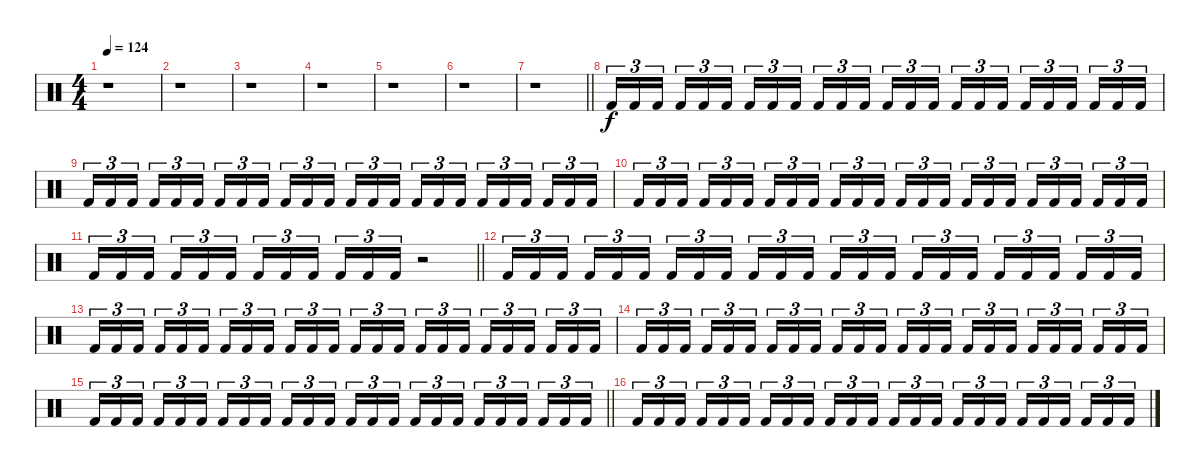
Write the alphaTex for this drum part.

\track "" {instrument percussion}
\staff {score}
\articulation defaults
\ts (4 4)
\tempo 124
\clef neutral
\ks c
r.1{dy f} |
r.1 |
r.1 |
r.1 |
r.1 |
r.1 |
\barLineRight lightlight
r.1 |
"Kick (hit) 2".16{tu (3 2)} "Kick (hit) 2".16{tu (3 2)} "Kick (hit) 2".16{tu (3 2) beam splitsecondary} "Kick (hit) 2".16{tu (3 2)} "Kick (hit) 2".16{tu (3 2)} "Kick (hit) 2".16{tu (3 2)} "Kick (hit) 2".16{tu (3 2)} "Kick (hit) 2".16{tu (3 2)} "Kick (hit) 2".16{tu (3 2) beam splitsecondary} "Kick (hit) 2".16{tu (3 2)} "Kick (hit) 2".16{tu (3 2)} "Kick (hit) 2".16{tu (3 2)} "Kick (hit) 2".16{tu (3 2)} "Kick (hit) 2".16{tu (3 2)} "Kick (hit) 2".16{tu (3 2) beam splitsecondary} "Kick (hit) 2".16{tu (3 2)} "Kick (hit) 2".16{tu (3 2)} "Kick (hit) 2".16{tu (3 2)} "Kick (hit) 2".16{tu (3 2)} "Kick (hit) 2".16{tu (3 2)} "Kick (hit) 2".16{tu (3 2) beam splitsecondary} "Kick (hit) 2".16{tu (3 2)} "Kick (hit) 2".16{tu (3 2)} "Kick (hit) 2".16{tu (3 2)} |
"Kick (hit) 2".16{tu (3 2)} "Kick (hit) 2".16{tu (3 2)} "Kick (hit) 2".16{tu (3 2) beam splitsecondary} "Kick (hit) 2".16{tu (3 2)} "Kick (hit) 2".16{tu (3 2)} "Kick (hit) 2".16{tu (3 2)} "Kick (hit) 2".16{tu (3 2)} "Kick (hit) 2".16{tu (3 2)} "Kick (hit) 2".16{tu (3 2) beam splitsecondary} "Kick (hit) 2".16{tu (3 2)} "Kick (hit) 2".16{tu (3 2)} "Kick (hit) 2".16{tu (3 2)} "Kick (hit) 2".16{tu (3 2)} "Kick (hit) 2".16{tu (3 2)} "Kick (hit) 2".16{tu (3 2) beam splitsecondary} "Kick (hit) 2".16{tu (3 2)} "Kick (hit) 2".16{tu (3 2)} "Kick (hit) 2".16{tu (3 2)} "Kick (hit) 2".16{tu (3 2)} "Kick (hit) 2".16{tu (3 2)} "Kick (hit) 2".16{tu (3 2) beam splitsecondary} "Kick (hit) 2".16{tu (3 2)} "Kick (hit) 2".16{tu (3 2)} "Kick (hit) 2".16{tu (3 2)} |
"Kick (hit) 2".16{tu (3 2)} "Kick (hit) 2".16{tu (3 2)} "Kick (hit) 2".16{tu (3 2) beam splitsecondary} "Kick (hit) 2".16{tu (3 2)} "Kick (hit) 2".16{tu (3 2)} "Kick (hit) 2".16{tu (3 2)} "Kick (hit) 2".16{tu (3 2)} "Kick (hit) 2".16{tu (3 2)} "Kick (hit) 2".16{tu (3 2) beam splitsecondary} "Kick (hit) 2".16{tu (3 2)} "Kick (hit) 2".16{tu (3 2)} "Kick (hit) 2".16{tu (3 2)} "Kick (hit) 2".16{tu (3 2)} "Kick (hit) 2".16{tu (3 2)} "Kick (hit) 2".16{tu (3 2) beam splitsecondary} "Kick (hit) 2".16{tu (3 2)} "Kick (hit) 2".16{tu (3 2)} "Kick (hit) 2".16{tu (3 2)} "Kick (hit) 2".16{tu (3 2)} "Kick (hit) 2".16{tu (3 2)} "Kick (hit) 2".16{tu (3 2) beam splitsecondary} "Kick (hit) 2".16{tu (3 2)} "Kick (hit) 2".16{tu (3 2)} "Kick (hit) 2".16{tu (3 2)} |
\barLineRight lightlight "Kick (hit) 2".16{tu (3 2)} "Kick (hit) 2".16{tu (3 2)} "Kick (hit) 2".16{tu (3 2) beam splitsecondary} "Kick (hit) 2".16{tu (3 2)} "Kick (hit) 2".16{tu (3 2)} "Kick (hit) 2".16{tu (3 2)} "Kick (hit) 2".16{tu (3 2)} "Kick (hit) 2".16{tu (3 2)} "Kick (hit) 2".16{tu (3 2) beam splitsecondary} "Kick (hit) 2".16{tu (3 2)} "Kick (hit) 2".16{tu (3 2)} "Kick (hit) 2".16{tu (3 2)}
r.2 |
"Kick (hit) 2".16{tu (3 2)} "Kick (hit) 2".16{tu (3 2)} "Kick (hit) 2".16{tu (3 2) beam splitsecondary} "Kick (hit) 2".16{tu (3 2)} "Kick (hit) 2".16{tu (3 2)} "Kick (hit) 2".16{tu (3 2)} "Kick (hit) 2".16{tu (3 2)} "Kick (hit) 2".16{tu (3 2)} "Kick (hit) 2".16{tu (3 2) beam splitsecondary} "Kick (hit) 2".16{tu (3 2)} "Kick (hit) 2".16{tu (3 2)} "Kick (hit) 2".16{tu (3 2)} "Kick (hit) 2".16{tu (3 2)} "Kick (hit) 2".16{tu (3 2)} "Kick (hit) 2".16{tu (3 2) beam splitsecondary} "Kick (hit) 2".16{tu (3 2)} "Kick (hit) 2".16{tu (3 2)} "Kick (hit) 2".16{tu (3 2)} "Kick (hit) 2".16{tu (3 2)} "Kick (hit) 2".16{tu (3 2)} "Kick (hit) 2".16{tu (3 2) beam splitsecondary} "Kick (hit) 2".16{tu (3 2)} "Kick (hit) 2".16{tu (3 2)} "Kick (hit) 2".16{tu (3 2)} |
"Kick (hit) 2".16{tu (3 2)} "Kick (hit) 2".16{tu (3 2)} "Kick (hit) 2".16{tu (3 2) beam splitsecondary} "Kick (hit) 2".16{tu (3 2)} "Kick (hit) 2".16{tu (3 2)} "Kick (hit) 2".16{tu (3 2)} "Kick (hit) 2".16{tu (3 2)} "Kick (hit) 2".16{tu (3 2)} "Kick (hit) 2".16{tu (3 2) beam splitsecondary} "Kick (hit) 2".16{tu (3 2)} "Kick (hit) 2".16{tu (3 2)} "Kick (hit) 2".16{tu (3 2)} "Kick (hit) 2".16{tu (3 2)} "Kick (hit) 2".16{tu (3 2)} "Kick (hit) 2".16{tu (3 2) beam splitsecondary} "Kick (hit) 2".16{tu (3 2)} "Kick (hit) 2".16{tu (3 2)} "Kick (hit) 2".16{tu (3 2)} "Kick (hit) 2".16{tu (3 2)} "Kick (hit) 2".16{tu (3 2)} "Kick (hit) 2".16{tu (3 2) beam splitsecondary} "Kick (hit) 2".16{tu (3 2)} "Kick (hit) 2".16{tu (3 2)} "Kick (hit) 2".16{tu (3 2)} |
"Kick (hit) 2".16{tu (3 2)} "Kick (hit) 2".16{tu (3 2)} "Kick (hit) 2".16{tu (3 2) beam splitsecondary} "Kick (hit) 2".16{tu (3 2)} "Kick (hit) 2".16{tu (3 2)} "Kick (hit) 2".16{tu (3 2)} "Kick (hit) 2".16{tu (3 2)} "Kick (hit) 2".16{tu (3 2)} "Kick (hit) 2".16{tu (3 2) beam splitsecondary} "Kick (hit) 2".16{tu (3 2)} "Kick (hit) 2".16{tu (3 2)} "Kick (hit) 2".16{tu (3 2)} "Kick (hit) 2".16{tu (3 2)} "Kick (hit) 2".16{tu (3 2)} "Kick (hit) 2".16{tu (3 2) beam splitsecondary} "Kick (hit) 2".16{tu (3 2)} "Kick (hit) 2".16{tu (3 2)} "Kick (hit) 2".16{tu (3 2)} "Kick (hit) 2".16{tu (3 2)} "Kick (hit) 2".16{tu (3 2)} "Kick (hit) 2".16{tu (3 2) beam splitsecondary} "Kick (hit) 2".16{tu (3 2)} "Kick (hit) 2".16{tu (3 2)} "Kick (hit) 2".16{tu (3 2)} |
\barLineRight lightlight "Kick (hit) 2".16{tu (3 2)} "Kick (hit) 2".16{tu (3 2)} "Kick (hit) 2".16{tu (3 2) beam splitsecondary} "Kick (hit) 2".16{tu (3 2)} "Kick (hit) 2".16{tu (3 2)} "Kick (hit) 2".16{tu (3 2)} "Kick (hit) 2".16{tu (3 2)} "Kick (hit) 2".16{tu (3 2)} "Kick (hit) 2".16{tu (3 2) beam splitsecondary} "Kick (hit) 2".16{tu (3 2)} "Kick (hit) 2".16{tu (3 2)} "Kick (hit) 2".16{tu (3 2)} "Kick (hit) 2".16{tu (3 2)} "Kick (hit) 2".16{tu (3 2)} "Kick (hit) 2".16{tu (3 2) beam splitsecondary} "Kick (hit) 2".16{tu (3 2)} "Kick (hit) 2".16{tu (3 2)} "Kick (hit) 2".16{tu (3 2)} "Kick (hit) 2".16{tu (3 2)} "Kick (hit) 2".16{tu (3 2)} "Kick (hit) 2".16{tu (3 2) beam splitsecondary} "Kick (hit) 2".16{tu (3 2)} "Kick (hit) 2".16{tu (3 2)} "Kick (hit) 2".16{tu (3 2)}
|
"Kick (hit) 2".16{tu (3 2)} "Kick (hit) 2".16{tu (3 2)} "Kick (hit) 2".16{tu (3 2) beam splitsecondary} "Kick (hit) 2".16{tu (3 2)} "Kick (hit) 2".16{tu (3 2)} "Kick (hit) 2".16{tu (3 2)} "Kick (hit) 2".16{tu (3 2)} "Kick (hit) 2".16{tu (3 2)} "Kick (hit) 2".16{tu (3 2) beam splitsecondary} "Kick (hit) 2".16{tu (3 2)} "Kick (hit) 2".16{tu (3 2)} "Kick (hit) 2".16{tu (3 2)} "Kick (hit) 2".16{tu (3 2)} "Kick (hit) 2".16{tu (3 2)} "Kick (hit) 2".16{tu (3 2) beam splitsecondary} "Kick (hit) 2".16{tu (3 2)} "Kick (hit) 2".16{tu (3 2)} "Kick (hit) 2".16{tu (3 2)} "Kick (hit) 2".16{tu (3 2)} "Kick (hit) 2".16{tu (3 2)} "Kick (hit) 2".16{tu (3 2) beam splitsecondary} "Kick (hit) 2".16{tu (3 2)} "Kick (hit) 2".16{tu (3 2)} "Kick (hit) 2".16{tu (3 2)}
